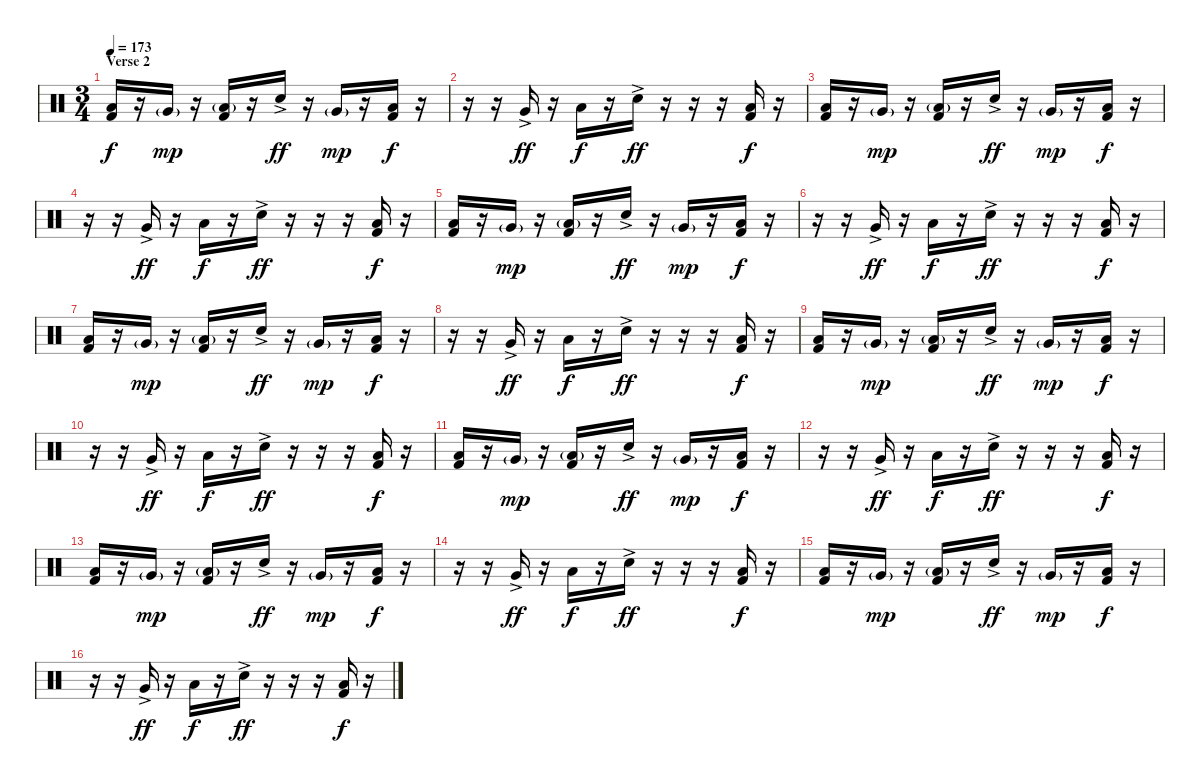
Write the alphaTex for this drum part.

\track (" " " ") {instrument percussion}
\staff {score}
\articulation defaults
\ts (3 4)
\section ("" "Verse 2")
\tempo 173
\clef neutral
\ks c
("Low Floor Tom (hit)" "Kick (hit) 2").16{dy f} r.16 "Very Low Tom (hit)"{g}.16{dy mp} r.16 ("Low Floor Tom (hit)"{g} "Kick (hit) 2").16 r.16 "Electric Snare (hit)"{ac}.16{dy ff} r.16 "Very Low Tom (hit)"{g}.16{dy mp} r.16 ("Low Floor Tom (hit)" "Kick (hit) 2").16{dy f} r.16 |
r.16 r.16 "Very Low Tom (hit)"{ac}.16{dy ff} r.16 "Low Floor Tom (hit)".16{dy f} r.16 "Electric Snare (hit)"{ac}.16{dy ff} r.16 r.16 r.16 ("Low Floor Tom (hit)" "Kick (hit) 2").16{dy f} r.16 |
("Low Floor Tom (hit)" "Kick (hit) 2").16 r.16 "Very Low Tom (hit)"{g}.16{dy mp} r.16 ("Low Floor Tom (hit)"{g} "Kick (hit) 2").16 r.16 "Electric Snare (hit)"{ac}.16{dy ff} r.16 "Very Low Tom (hit)"{g}.16{dy mp} r.16 ("Low Floor Tom (hit)" "Kick (hit) 2").16{dy f} r.16 |
r.16 r.16 "Very Low Tom (hit)"{ac}.16{dy ff} r.16 "Low Floor Tom (hit)".16{dy f} r.16 "Electric Snare (hit)"{ac}.16{dy ff} r.16 r.16 r.16 ("Low Floor Tom (hit)" "Kick (hit) 2").16{dy f} r.16 |
("Low Floor Tom (hit)" "Kick (hit) 2").16 r.16 "Very Low Tom (hit)"{g}.16{dy mp} r.16 ("Low Floor Tom (hit)"{g} "Kick (hit) 2").16 r.16 "Electric Snare (hit)"{ac}.16{dy ff} r.16 "Very Low Tom (hit)"{g}.16{dy mp} r.16 ("Low Floor Tom (hit)" "Kick (hit) 2").16{dy f} r.16 |
r.16 r.16 "Very Low Tom (hit)"{ac}.16{dy ff} r.16 "Low Floor Tom (hit)".16{dy f} r.16 "Electric Snare (hit)"{ac}.16{dy ff} r.16 r.16 r.16 ("Low Floor Tom (hit)" "Kick (hit) 2").16{dy f} r.16 |
("Low Floor Tom (hit)" "Kick (hit) 2").16 r.16 "Very Low Tom (hit)"{g}.16{dy mp} r.16 ("Low Floor Tom (hit)"{g} "Kick (hit) 2").16 r.16 "Electric Snare (hit)"{ac}.16{dy ff} r.16 "Very Low Tom (hit)"{g}.16{dy mp} r.16 ("Low Floor Tom (hit)" "Kick (hit) 2").16{dy f} r.16 |
r.16 r.16 "Very Low Tom (hit)"{ac}.16{dy ff} r.16 "Low Floor Tom (hit)".16{dy f} r.16 "Electric Snare (hit)"{ac}.16{dy ff} r.16 r.16 r.16 ("Low Floor Tom (hit)" "Kick (hit) 2").16{dy f} r.16 |
("Low Floor Tom (hit)" "Kick (hit) 2").16 r.16 "Very Low Tom (hit)"{g}.16{dy mp} r.16 ("Low Floor Tom (hit)"{g} "Kick (hit) 2").16 r.16 "Electric Snare (hit)"{ac}.16{dy ff} r.16 "Very Low Tom (hit)"{g}.16{dy mp} r.16 ("Low Floor Tom (hit)" "Kick (hit) 2").16{dy f} r.16 |
r.16 r.16 "Very Low Tom (hit)"{ac}.16{dy ff} r.16 "Low Floor Tom (hit)".16{dy f} r.16 "Electric Snare (hit)"{ac}.16{dy ff} r.16 r.16 r.16 ("Low Floor Tom (hit)" "Kick (hit) 2").16{dy f} r.16 |
("Low Floor Tom (hit)" "Kick (hit) 2").16 r.16 "Very Low Tom (hit)"{g}.16{dy mp} r.16 ("Low Floor Tom (hit)"{g} "Kick (hit) 2").16 r.16 "Electric Snare (hit)"{ac}.16{dy ff} r.16 "Very Low Tom (hit)"{g}.16{dy mp} r.16 ("Low Floor Tom (hit)" "Kick (hit) 2").16{dy f} r.16 |
r.16 r.16 "Very Low Tom (hit)"{ac}.16{dy ff} r.16 "Low Floor Tom (hit)".16{dy f} r.16 "Electric Snare (hit)"{ac}.16{dy ff} r.16 r.16 r.16 ("Low Floor Tom (hit)" "Kick (hit) 2").16{dy f} r.16 |
("Low Floor Tom (hit)" "Kick (hit) 2").16 r.16 "Very Low Tom (hit)"{g}.16{dy mp} r.16 ("Low Floor Tom (hit)"{g} "Kick (hit) 2").16 r.16 "Electric Snare (hit)"{ac}.16{dy ff} r.16 "Very Low Tom (hit)"{g}.16{dy mp} r.16 ("Low Floor Tom (hit)" "Kick (hit) 2").16{dy f} r.16 |
r.16 r.16 "Very Low Tom (hit)"{ac}.16{dy ff} r.16 "Low Floor Tom (hit)".16{dy f} r.16 "Electric Snare (hit)"{ac}.16{dy ff} r.16 r.16 r.16 ("Low Floor Tom (hit)" "Kick (hit) 2").16{dy f} r.16 |
("Low Floor Tom (hit)" "Kick (hit) 2").16 r.16 "Very Low Tom (hit)"{g}.16{dy mp} r.16 ("Low Floor Tom (hit)"{g} "Kick (hit) 2").16 r.16 "Electric Snare (hit)"{ac}.16{dy ff} r.16 "Very Low Tom (hit)"{g}.16{dy mp} r.16 ("Low Floor Tom (hit)" "Kick (hit) 2").16{dy f} r.16 |
r.16 r.16 "Very Low Tom (hit)"{ac}.16{dy ff} r.16 "Low Floor Tom (hit)".16{dy f} r.16 "Electric Snare (hit)"{ac}.16{dy ff} r.16 r.16 r.16 ("Low Floor Tom (hit)" "Kick (hit) 2").16{dy f} r.16
